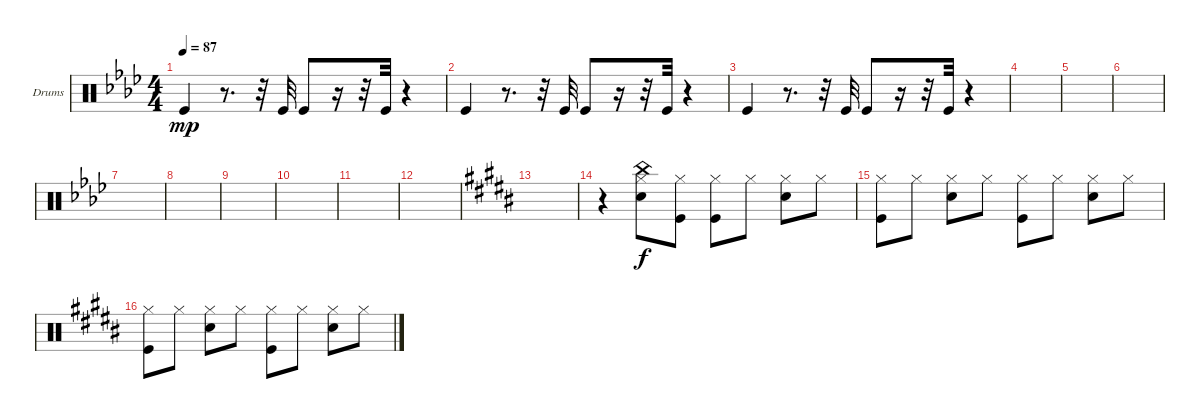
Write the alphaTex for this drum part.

\defaultSystemsLayout 4
\bracketExtendMode groupsimilarinstruments
\firstSystemTrackNameOrientation horizontal
\otherSystemsTrackNameOrientation horizontal
\track ("Drumkit" "Drums") {instrument percussion}
\staff {score}
\articulation defaults
\ts (4 4)
\tempo 87
\clef neutral
\ks ab "Kick (hit)".4{dy mp}
r.8{d} r.32 "Kick (hit)".32 "Kick (hit)".8 r.16 r.32 "Kick (hit)".32 r.4 |
"Kick (hit)".4 r.8{d} r.32 "Kick (hit)".32 "Kick (hit)".8 r.16 r.32 "Kick (hit)".32 r.4 |
"Kick (hit)".4 r.8{d} r.32 "Kick (hit)".32 "Kick (hit)".8 r.16 r.32 "Kick (hit)".32 r.4 |
|
|
|
|
|
|
|
|
|
\ks b
|
r.4 ("Snare (hit) 2" "Hi-Hat (closed)" "China (hit)").8{dy f} ("Hi-Hat (closed)" "Kick (hit)").8 ("Kick (hit)" "Hi-Hat (closed)").8 "Hi-Hat (closed)".8 ("Snare (hit) 2" "Hi-Hat (closed)").8 "Hi-Hat (closed)".8 |
("Kick (hit)" "Hi-Hat (closed)").8 "Hi-Hat (closed)".8 ("Snare (hit) 2" "Hi-Hat (closed)").8 "Hi-Hat (closed)".8 ("Kick (hit)" "Hi-Hat (closed)").8 "Hi-Hat (closed)".8 ("Snare (hit) 2" "Hi-Hat (closed)").8 "Hi-Hat (closed)".8 |
("Kick (hit)" "Hi-Hat (closed)").8 "Hi-Hat (closed)".8 ("Snare (hit) 2" "Hi-Hat (closed)").8 "Hi-Hat (closed)".8 ("Kick (hit)" "Hi-Hat (closed)").8 "Hi-Hat (closed)".8 ("Snare (hit) 2" "Hi-Hat (closed)").8 "Hi-Hat (closed)".8
